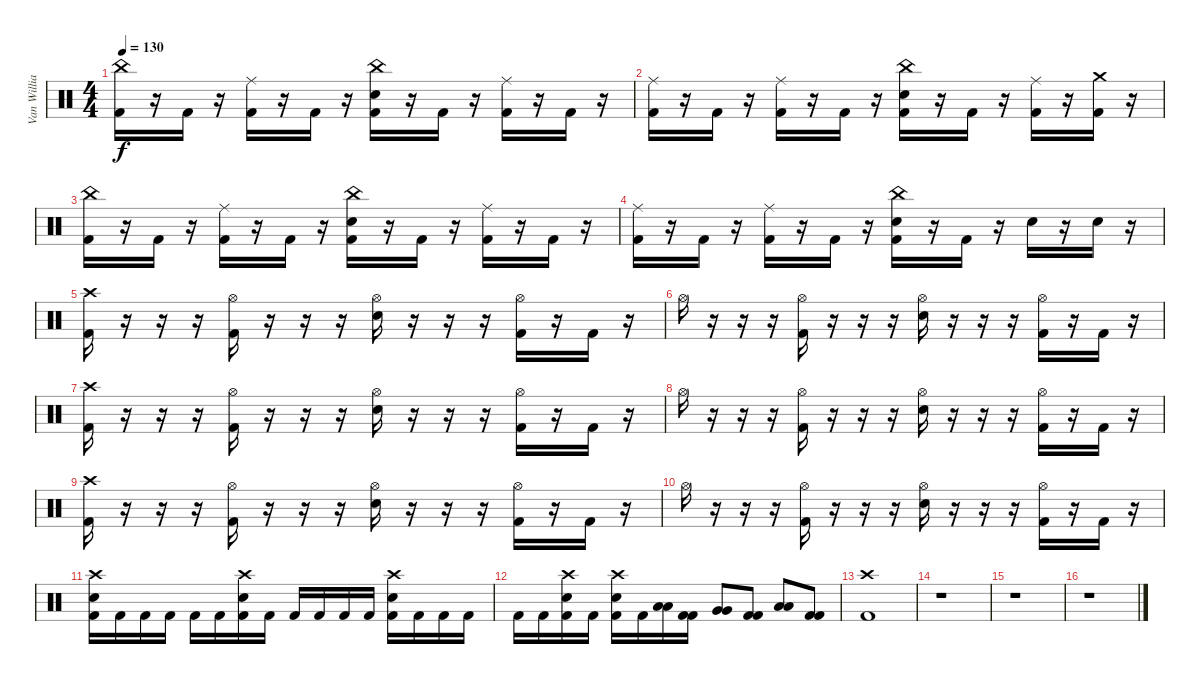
\track ("Van Williams" "Van Willia") {instrument percussion}
\staff {score}
\articulation defaults
\ts (4 4)
\tempo 130
\clef neutral
\ks c
("China (hit)" "Kick (hit) 2").16{dy f} r.16 "Kick (hit) 2".16 r.16 ("Ride (middle)" "Kick (hit) 2").16 r.16 "Kick (hit) 2".16 r.16 ("China (hit)" "Kick (hit) 2" "Electric Snare (hit)").16 r.16 "Kick (hit) 2".16 r.16 ("Ride (middle)" "Kick (hit) 2").16 r.16 "Kick (hit) 2".16 r.16 |
("Ride (middle)" "Kick (hit) 2").16 r.16 "Kick (hit) 2".16 r.16 ("Ride (middle)" "Kick (hit) 2").16 r.16 "Kick (hit) 2".16 r.16 ("China (hit)" "Kick (hit) 2" "Electric Snare (hit)").16 r.16 "Kick (hit) 2".16 r.16 ("Ride (middle)" "Kick (hit) 2").16 r.16 ("Crash medium (hit)" "Kick (hit) 2").16 r.16 |
("China (hit)" "Kick (hit) 2").16 r.16 "Kick (hit) 2".16 r.16 ("Ride (middle)" "Kick (hit) 2").16 r.16 "Kick (hit) 2".16 r.16 ("China (hit)" "Kick (hit) 2" "Electric Snare (hit)").16 r.16 "Kick (hit) 2".16 r.16 ("Ride (middle)" "Kick (hit) 2").16 r.16 "Kick (hit) 2".16 r.16 |
("Ride (middle)" "Kick (hit) 2").16 r.16 "Kick (hit) 2".16 r.16 ("Ride (middle)" "Kick (hit) 2").16 r.16 "Kick (hit) 2".16 r.16 ("China (hit)" "Kick (hit) 2" "Electric Snare (hit)").16 r.16 "Kick (hit) 2".16 r.16 "Electric Snare (hit)".16 r.16 "Electric Snare (hit)".16 r.16 |
("Crash high (hit)" "Kick (hit) 2").16 r.16 r.16 r.16 ("Hi-Hat (open)" "Kick (hit) 2").16 r.16 r.16 r.16 ("Hi-Hat (open)" "Electric Snare (hit)").16 r.16 r.16 r.16 ("Hi-Hat (open)" "Kick (hit) 2").16 r.16 "Kick (hit) 2".16 r.16 |
"Hi-Hat (open)".16 r.16 r.16 r.16 ("Hi-Hat (open)" "Kick (hit) 2").16 r.16 r.16 r.16 ("Hi-Hat (open)" "Electric Snare (hit)").16 r.16 r.16 r.16 ("Hi-Hat (open)" "Kick (hit) 2").16 r.16 "Kick (hit) 2".16 r.16 |
("Crash high (hit)" "Kick (hit) 2").16 r.16 r.16 r.16 ("Hi-Hat (open)" "Kick (hit) 2").16 r.16 r.16 r.16 ("Hi-Hat (open)" "Electric Snare (hit)").16 r.16 r.16 r.16 ("Hi-Hat (open)" "Kick (hit) 2").16 r.16 "Kick (hit) 2".16 r.16 |
"Hi-Hat (open)".16 r.16 r.16 r.16 ("Hi-Hat (open)" "Kick (hit) 2").16 r.16 r.16 r.16 ("Hi-Hat (open)" "Electric Snare (hit)").16 r.16 r.16 r.16 ("Hi-Hat (open)" "Kick (hit) 2").16 r.16 "Kick (hit) 2".16 r.16 |
("Crash high (hit)" "Kick (hit) 2").16 r.16 r.16 r.16 ("Hi-Hat (open)" "Kick (hit) 2").16 r.16 r.16 r.16 ("Hi-Hat (open)" "Electric Snare (hit)").16 r.16 r.16 r.16 ("Hi-Hat (open)" "Kick (hit) 2").16 r.16 "Kick (hit) 2".16 r.16 |
"Hi-Hat (open)".16 r.16 r.16 r.16 ("Hi-Hat (open)" "Kick (hit) 2").16 r.16 r.16 r.16 ("Hi-Hat (open)" "Electric Snare (hit)").16 r.16 r.16 r.16 ("Hi-Hat (open)" "Kick (hit) 2").16 r.16 "Kick (hit) 2".16 r.16 |
("Crash high (hit)" "Kick (hit) 2" "Electric Snare (hit)").16 "Kick (hit) 2".16 "Kick (hit) 2".16 "Kick (hit) 2".16 "Kick (hit) 2".16 "Kick (hit) 2".16 ("Crash high (hit)" "Kick (hit) 2" "Electric Snare (hit)").16 "Kick (hit) 2".16 "Kick (hit) 2".16 "Kick (hit) 2".16 "Kick (hit) 2".16 "Kick (hit) 2".16 ("Crash high (hit)" "Kick (hit) 2" "Electric Snare (hit)").16 "Kick (hit) 2".16 "Kick (hit) 2".16 "Kick (hit) 2".16 |
"Kick (hit) 2".16 "Kick (hit) 2".16 ("Crash high (hit)" "Kick (hit) 2" "Electric Snare (hit)").16 "Kick (hit) 2".16 ("Crash high (hit)" "Kick (hit) 2" "Electric Snare (hit)").16 "Kick (hit) 2".16 ("Low Tom (hit)" "Low Tom (hit)").16 ("Kick (hit) 2" "Kick (hit) 2").16 ("Very Low Tom (hit)" "Very Low Tom (hit)").8 ("Kick (hit) 2" "Kick (hit) 2").8 ("Low Floor Tom (hit)" "Low Floor Tom (hit)").8 ("Kick (hit) 2" "Kick (hit) 2").8 |
("Crash high (hit)" "Kick (hit) 2").1 |
r.1 |
r.1 |
r.1
